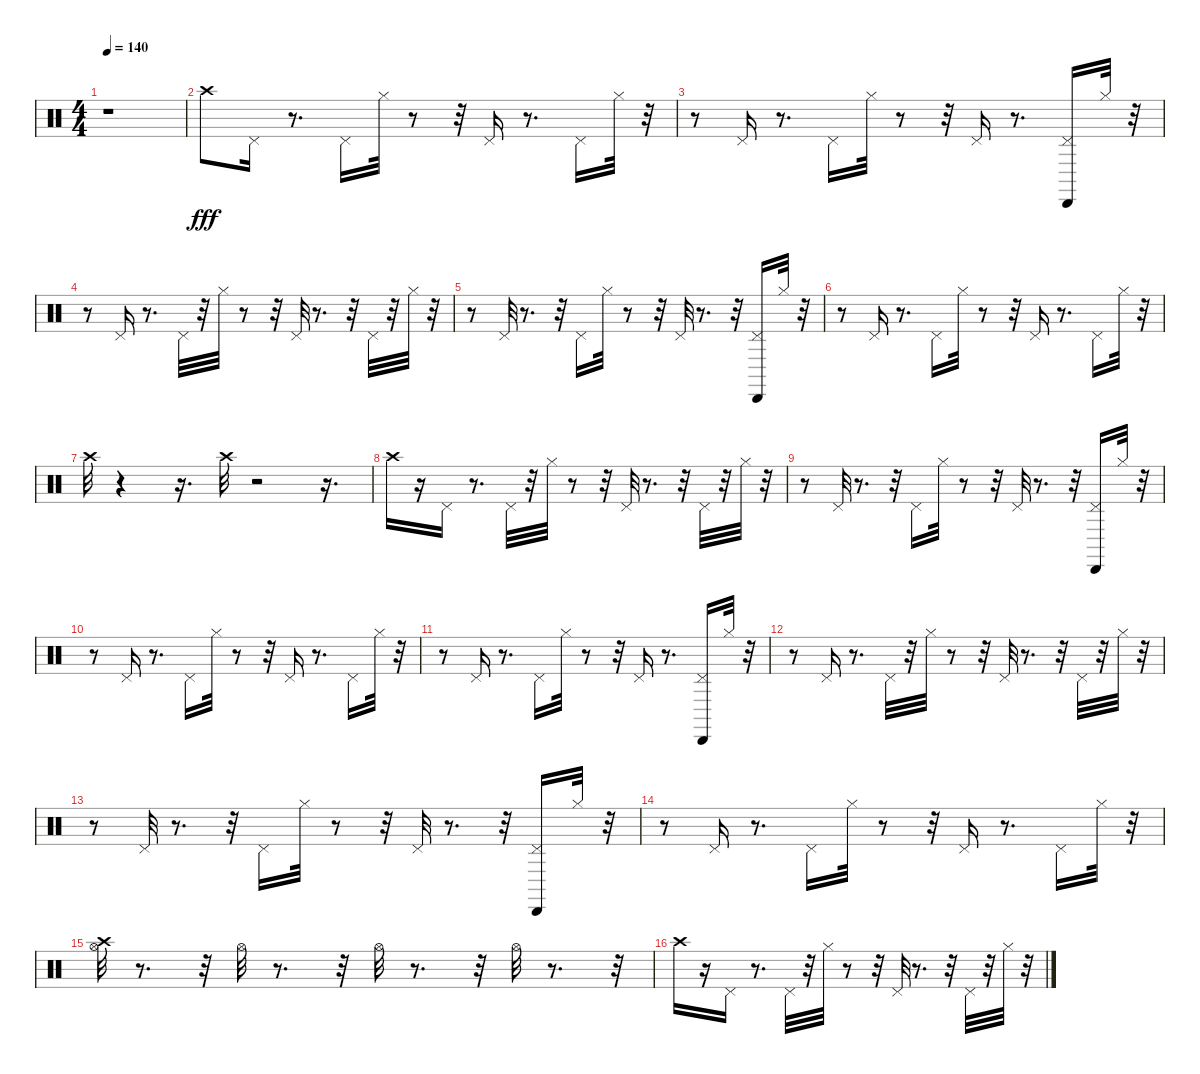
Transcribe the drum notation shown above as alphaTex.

\track "" {instrument percussion}
\staff {score}
\articulation defaults
\ts (4 4)
\tempo 140
\clef neutral
\ks c
r.1{dy ff} |
"Crash high (hit)".8{dy fff} "Pedal Hi-Hat (hit)".16 r.8{d} "Pedal Hi-Hat (hit)".16 "Hi-Hat (closed)".32 r.8 r.32 "Pedal Hi-Hat (hit)".16 r.8{d} "Pedal Hi-Hat (hit)".16 "Hi-Hat (closed)".32 r.32 |
r.8 "Pedal Hi-Hat (hit)".16 r.8{d} "Pedal Hi-Hat (hit)".16 "Hi-Hat (closed)".32 r.8 r.32 "Pedal Hi-Hat (hit)".16 r.8{d} ("Cabasa (hit)" "Pedal Hi-Hat (hit)").16 "Hi-Hat (closed)".32 r.32 |
r.8 "Pedal Hi-Hat (hit)".16 r.8{d} "Pedal Hi-Hat (hit)".32 r.32 "Hi-Hat (closed)".32 r.8 r.32 "Pedal Hi-Hat (hit)".32 r.8{d} r.32 "Pedal Hi-Hat (hit)".32 r.32 "Hi-Hat (closed)".32 r.32 |
r.8 "Pedal Hi-Hat (hit)".32 r.8{d} r.32 "Pedal Hi-Hat (hit)".16 "Hi-Hat (closed)".32 r.8 r.32 "Pedal Hi-Hat (hit)".32 r.8{d} r.32 ("Cabasa (hit)" "Pedal Hi-Hat (hit)").16 "Hi-Hat (closed)".32 r.32 |
r.8 "Pedal Hi-Hat (hit)".16 r.8{d} "Pedal Hi-Hat (hit)".16 "Hi-Hat (closed)".32 r.8 r.32 "Pedal Hi-Hat (hit)".16 r.8{d} "Pedal Hi-Hat (hit)".16 "Hi-Hat (closed)".32 r.32 |
"Crash high (hit)".32 r.4 r.16{d} "Crash high (hit)".32 r.2 r.16{d} |
"Crash high (hit)".16 r.16 "Pedal Hi-Hat (hit)".16 r.8{d} "Pedal Hi-Hat (hit)".32 r.32 "Hi-Hat (closed)".32 r.8 r.32 "Pedal Hi-Hat (hit)".32 r.8{d} r.32 "Pedal Hi-Hat (hit)".32 r.32 "Hi-Hat (closed)".32 r.32 |
r.8 "Pedal Hi-Hat (hit)".32 r.8{d} r.32 "Pedal Hi-Hat (hit)".16 "Hi-Hat (closed)".32 r.8 r.32 "Pedal Hi-Hat (hit)".32 r.8{d} r.32 ("Cabasa (hit)" "Pedal Hi-Hat (hit)").16 "Hi-Hat (closed)".32 r.32 |
r.8 "Pedal Hi-Hat (hit)".16 r.8{d} "Pedal Hi-Hat (hit)".16 "Hi-Hat (closed)".32 r.8 r.32 "Pedal Hi-Hat (hit)".16 r.8{d} "Pedal Hi-Hat (hit)".16 "Hi-Hat (closed)".32 r.32 |
r.8 "Pedal Hi-Hat (hit)".16 r.8{d} "Pedal Hi-Hat (hit)".16 "Hi-Hat (closed)".32 r.8 r.32 "Pedal Hi-Hat (hit)".16 r.8{d} ("Cabasa (hit)" "Pedal Hi-Hat (hit)").16 "Hi-Hat (closed)".32 r.32 |
r.8 "Pedal Hi-Hat (hit)".16 r.8{d} "Pedal Hi-Hat (hit)".32 r.32 "Hi-Hat (closed)".32 r.8 r.32 "Pedal Hi-Hat (hit)".32 r.8{d} r.32 "Pedal Hi-Hat (hit)".32 r.32 "Hi-Hat (closed)".32 r.32 |
r.8 "Pedal Hi-Hat (hit)".32 r.8{d} r.32 "Pedal Hi-Hat (hit)".16 "Hi-Hat (closed)".32 r.8 r.32 "Pedal Hi-Hat (hit)".32 r.8{d} r.32 ("Cabasa (hit)" "Pedal Hi-Hat (hit)").16 "Hi-Hat (closed)".32 r.32 |
r.8 "Pedal Hi-Hat (hit)".16 r.8{d} "Pedal Hi-Hat (hit)".16 "Hi-Hat (closed)".32 r.8 r.32 "Pedal Hi-Hat (hit)".16 r.8{d} "Pedal Hi-Hat (hit)".16 "Hi-Hat (closed)".32 r.32 |
("Crash high (hit)" "Hi-Hat (open)").32 r.8{d} r.32 "Hi-Hat (open)".32 r.8{d} r.32 "Hi-Hat (open)".32 r.8{d} r.32 "Hi-Hat (open)".32 r.8{d} r.32 |
"Crash high (hit)".16 r.16 "Pedal Hi-Hat (hit)".16 r.8{d} "Pedal Hi-Hat (hit)".32 r.32 "Hi-Hat (closed)".32 r.8 r.32 "Pedal Hi-Hat (hit)".32 r.8{d} r.32 "Pedal Hi-Hat (hit)".32 r.32 "Hi-Hat (closed)".32 r.32
